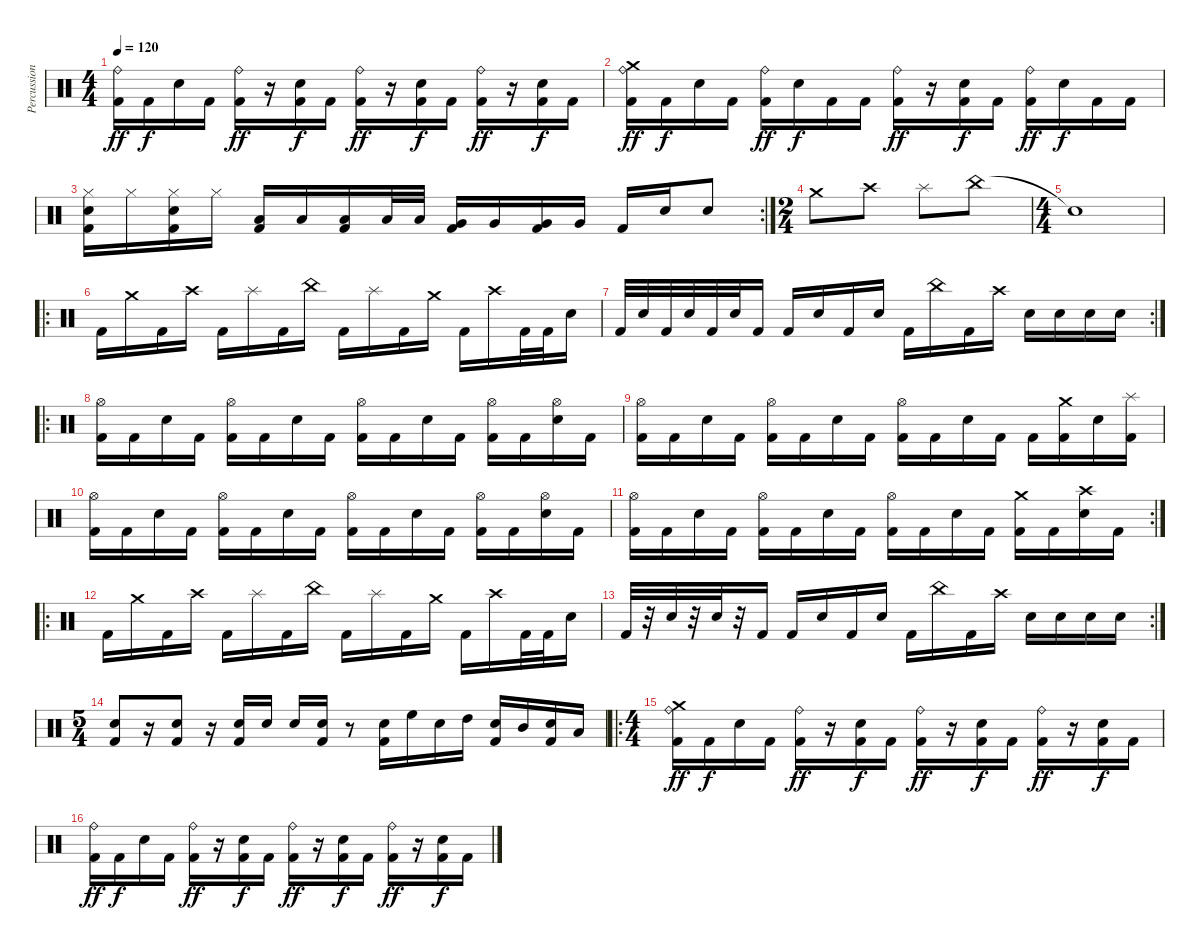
\track ("Percussion" "Percussion") {instrument percussion}
\staff {score}
\articulation defaults
\ts (4 4)
\tempo 120
\clef neutral
\ks c
("Ride (bell)" "Kick (hit) 2").16{dy ff} "Kick (hit) 2".16{dy f} "Snare (hit) 2".16 "Kick (hit) 2".16 ("Ride (bell)" "Kick (hit) 2").16{dy ff} r.16 ("Snare (hit) 2" "Kick (hit) 2").16{dy f} "Kick (hit) 2".16 ("Ride (bell)" "Kick (hit) 2").16{dy ff} r.16 ("Snare (hit) 2" "Kick (hit) 2").16{dy f} "Kick (hit) 2".16 ("Ride (bell)" "Kick (hit) 2").16{dy ff} r.16 ("Snare (hit) 2" "Kick (hit) 2").16{dy f} "Kick (hit) 2".16 |
("Ride (bell)" "Crash medium (hit)" "Kick (hit) 2").16{dy ff} "Kick (hit) 2".16{dy f} "Snare (hit) 2".16 "Kick (hit) 2".16 ("Ride (bell)" "Kick (hit) 2").16{dy ff} "Snare (hit) 2".16{dy f} "Kick (hit) 2".16 "Kick (hit) 2".16 ("Ride (bell)" "Kick (hit) 2").16{dy ff} r.16 ("Snare (hit) 2" "Kick (hit) 2").16{dy f} "Kick (hit) 2".16 ("Ride (bell)" "Kick (hit) 2").16{dy ff} "Snare (hit) 2".16{dy f} "Kick (hit) 2".16 "Kick (hit) 2".16 |
\rc 2
("Hi-Hat (closed)" "Snare (hit) 2" "Kick (hit) 2").16 "Hi-Hat (closed)".16 ("Hi-Hat (closed)" "Snare (hit) 2" "Kick (hit) 2").16 "Hi-Hat (closed)".16 ("Low Tom (hit)" "Kick (hit) 2").16 "Low Tom (hit)".16 ("Low Tom (hit)" "Kick (hit) 2").16 "Low Tom (hit)".32 "Low Tom (hit)".32 ("Very Low Tom (hit)" "Kick (hit) 2").16 "Very Low Tom (hit)".16 ("Very Low Tom (hit)" "Kick (hit) 2").16 "Very Low Tom (hit)".16 "Kick (hit) 2".16 "Snare (hit) 2".16 "Snare (hit) 2".8 |
\ts (2 4)
"Crash medium (hit)".8 "Crash high (hit)".8 "Splash (hit)".8 "China (hit)".8 |
\ts (4 4)
"Snare (hit)"{t}.1 |
\ro "Kick (hit) 2".16 "Crash medium (hit)".16 "Kick (hit) 2".16 "Crash high (hit)".16 "Kick (hit) 2".16 "Splash (hit)".16 "Kick (hit) 2".16 "China (hit)".16 "Kick (hit) 2".16 "Splash (hit)".16 "Kick (hit) 2".16 "Crash medium (hit)".16 "Kick (hit) 2".16 "Crash high (hit)".16 "Kick (hit) 2".32 "Kick (hit) 2".32 "Snare (hit) 2".16
|
\rc 2 "Kick (hit) 2".32 "Snare (hit) 2".32 "Kick (hit) 2".32 "Snare (hit) 2".32 "Kick (hit) 2".32 "Snare (hit) 2".32 "Kick (hit) 2".16 "Kick (hit) 2".16 "Snare (hit) 2".16 "Kick (hit) 2".16 "Snare (hit) 2".16 "Kick (hit) 2".16 "China (hit)".16 "Kick (hit) 2".16 "Crash high (hit)".16 "Snare (hit) 2".16 "Snare (hit) 2".16 "Snare (hit) 2".16 "Snare (hit) 2".16
|
\ro
("Hi-Hat (open)" "Kick (hit) 2").16 "Kick (hit) 2".16 "Snare (hit) 2".16 "Kick (hit) 2".16 ("Hi-Hat (open)" "Kick (hit) 2").16 "Kick (hit) 2".16 "Snare (hit) 2".16 "Kick (hit) 2".16 ("Hi-Hat (open)" "Kick (hit) 2").16 "Kick (hit) 2".16 "Snare (hit) 2".16 "Kick (hit) 2".16 ("Hi-Hat (open)" "Kick (hit) 2").16 "Kick (hit) 2".16 ("Hi-Hat (open)" "Snare (hit) 2").16 "Kick (hit) 2".16 |
("Hi-Hat (open)" "Kick (hit) 2").16 "Kick (hit) 2".16 "Snare (hit) 2".16 "Kick (hit) 2".16 ("Hi-Hat (open)" "Kick (hit) 2").16 "Kick (hit) 2".16 "Snare (hit) 2".16 "Kick (hit) 2".16 ("Hi-Hat (open)" "Kick (hit) 2").16 "Kick (hit) 2".16 "Snare (hit) 2".16 "Kick (hit) 2".16 "Kick (hit) 2".16 ("Crash medium (hit)" "Kick (hit) 2").16 "Snare (hit) 2".16 ("Splash (hit)" "Kick (hit) 2").16 |
("Hi-Hat (open)" "Kick (hit) 2").16 "Kick (hit) 2".16 "Snare (hit) 2".16 "Kick (hit) 2".16 ("Hi-Hat (open)" "Kick (hit) 2").16 "Kick (hit) 2".16 "Snare (hit) 2".16 "Kick (hit) 2".16 ("Hi-Hat (open)" "Kick (hit) 2").16 "Kick (hit) 2".16 "Snare (hit) 2".16 "Kick (hit) 2".16 ("Hi-Hat (open)" "Kick (hit) 2").16 "Kick (hit) 2".16 ("Hi-Hat (open)" "Snare (hit) 2").16 "Kick (hit) 2".16 |
\rc 2
("Hi-Hat (open)" "Kick (hit) 2").16 "Kick (hit) 2".16 "Snare (hit) 2".16 "Kick (hit) 2".16 ("Hi-Hat (open)" "Kick (hit) 2").16 "Kick (hit) 2".16 "Snare (hit) 2".16 "Kick (hit) 2".16 ("Hi-Hat (open)" "Kick (hit) 2").16 "Kick (hit) 2".16 "Snare (hit) 2".16 "Kick (hit) 2".16 ("Crash medium (hit)" "Kick (hit) 2").16 "Kick (hit) 2".16 ("Crash high (hit)" "Snare (hit) 2").16 "Kick (hit) 2".16 |
\ro "Kick (hit) 2".16 "Crash medium (hit)".16 "Kick (hit) 2".16 "Crash high (hit)".16 "Kick (hit) 2".16 "Splash (hit)".16 "Kick (hit) 2".16 "China (hit)".16 "Kick (hit) 2".16 "Splash (hit)".16 "Kick (hit) 2".16 "Crash medium (hit)".16 "Kick (hit) 2".16 "Crash high (hit)".16 "Kick (hit) 2".32 "Kick (hit) 2".32 "Snare (hit) 2".16
|
\rc 2 "Kick (hit) 2".32
r.32 "Snare (hit) 2".32 r.32 "Snare (hit) 2".32 r.32 "Kick (hit) 2".16 "Kick (hit) 2".16 "Snare (hit) 2".16 "Kick (hit) 2".16 "Snare (hit) 2".16 "Kick (hit) 2".16 "China (hit)".16 "Kick (hit) 2".16 "Crash high (hit)".16 "Snare (hit) 2".16 "Snare (hit) 2".16 "Snare (hit) 2".16 "Snare (hit) 2".16 |
\ts (5 4)
("Snare (hit) 2" "Kick (hit) 2").8 r.16 ("Snare (hit) 2" "Kick (hit) 2").8 r.16 ("Snare (hit) 2" "Kick (hit) 2").16 "Snare (hit) 2".16 "Snare (hit) 2".16 ("Snare (hit) 2" "Kick (hit) 2").16 r.8 ("Snare (hit) 2" "Kick (hit) 2").16 "High Floor Tom (hit)".16 "Snare (hit) 2".16 "High Tom (hit)".16 ("Snare (hit) 2" "Kick (hit) 2").16 "Mid Tom (hit)".16 ("Snare (hit) 2" "Kick (hit) 2").16 "Low Tom (hit)".16 |
\ro
\ts (4 4)
("Ride (bell)" "Crash medium (hit)" "Kick (hit) 2").16{dy ff} "Kick (hit) 2".16{dy f} "Snare (hit) 2".16 "Kick (hit) 2".16 ("Ride (bell)" "Kick (hit) 2").16{dy ff} r.16 ("Snare (hit) 2" "Kick (hit) 2").16{dy f} "Kick (hit) 2".16 ("Ride (bell)" "Kick (hit) 2").16{dy ff} r.16 ("Snare (hit) 2" "Kick (hit) 2").16{dy f} "Kick (hit) 2".16 ("Ride (bell)" "Kick (hit) 2").16{dy ff} r.16 ("Snare (hit) 2" "Kick (hit) 2").16{dy f} "Kick (hit) 2".16 |
("Ride (bell)" "Kick (hit) 2").16{dy ff} "Kick (hit) 2".16{dy f} "Snare (hit) 2".16 "Kick (hit) 2".16 ("Ride (bell)" "Kick (hit) 2").16{dy ff} r.16 ("Snare (hit) 2" "Kick (hit) 2").16{dy f} "Kick (hit) 2".16 ("Ride (bell)" "Kick (hit) 2").16{dy ff} r.16 ("Snare (hit) 2" "Kick (hit) 2").16{dy f} "Kick (hit) 2".16 ("Ride (bell)" "Kick (hit) 2").16{dy ff} r.16 ("Snare (hit) 2" "Kick (hit) 2").16{dy f} "Kick (hit) 2".16
